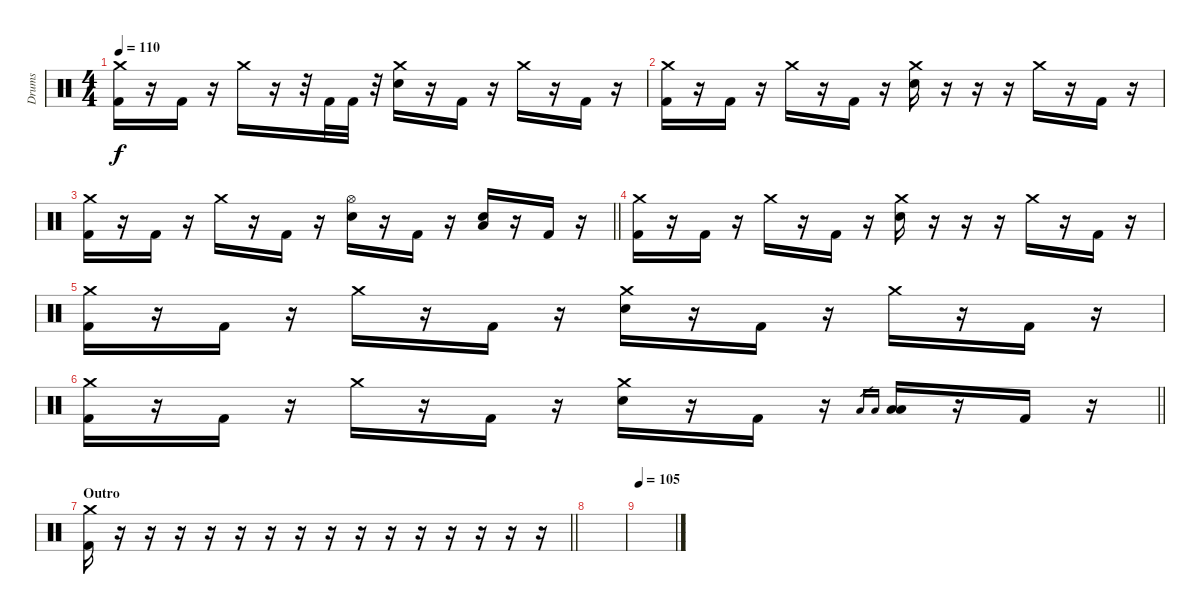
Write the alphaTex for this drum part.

\track ("Drums" "Drums") {instrument percussion}
\staff {score}
\articulation defaults
\ts (4 4)
\tempo 110
\clef neutral
\ks c
("Crash medium (hit)" "Kick (hit) 2").16{dy f} r.16 "Kick (hit) 2".16 r.16 "Crash medium (hit)".16 r.16 r.32 "Kick (hit) 2".32 "Kick (hit) 2".32 r.32 ("Crash medium (hit)" "Electric Snare (hit)").16 r.16 "Kick (hit) 2".16 r.16 "Crash medium (hit)".16 r.16 "Kick (hit) 2".16 r.16 |
("Crash medium (hit)" "Kick (hit) 2").16 r.16 "Kick (hit) 2".16 r.16 "Crash medium (hit)".16 r.16 "Kick (hit) 2".16 r.16 ("Crash medium (hit)" "Electric Snare (hit)").16 r.16 r.16 r.16 "Crash medium (hit)".16 r.16 "Kick (hit) 2".16 r.16 |
\barLineRight lightlight
("Crash medium (hit)" "Kick (hit) 2").16 r.16 "Kick (hit) 2".16 r.16 "Crash medium (hit)".16 r.16 "Kick (hit) 2".16 r.16 ("Hi-Hat (open)" "Electric Snare (hit)").16 r.16 "Kick (hit) 2".16 r.16 ("Low Floor Tom (hit)" "Electric Snare (hit)").16 r.16 "Kick (hit) 2".16 r.16 |
("Crash medium (hit)" "Kick (hit) 2").16 r.16 "Kick (hit) 2".16 r.16 "Crash medium (hit)".16 r.16 "Kick (hit) 2".16 r.16 ("Crash medium (hit)" "Electric Snare (hit)").16 r.16 r.16 r.16 "Crash medium (hit)".16 r.16 "Kick (hit) 2".16 r.16 |
("Crash medium (hit)" "Kick (hit) 2").16 r.16 "Kick (hit) 2".16 r.16 "Crash medium (hit)".16 r.16 "Kick (hit) 2".16 r.16 ("Crash medium (hit)" "Electric Snare (hit)").16 r.16 "Kick (hit) 2".16 r.16 "Crash medium (hit)".16 r.16 "Kick (hit) 2".16 r.16 |
\barLineRight lightlight
("Crash medium (hit)" "Kick (hit) 2").16 r.16 "Kick (hit) 2".16 r.16 "Crash medium (hit)".16 r.16 "Kick (hit) 2".16 r.16 ("Crash medium (hit)" "Electric Snare (hit)").16 r.16 "Kick (hit) 2".16 r.16 "Low Tom (hit)".16{gr} "Low Tom (hit)".16{gr} ("Low Tom (hit)" "Low Tom (hit)").16 r.16 "Kick (hit) 2".16 r.16 |
\section ("" "Outro")
\barLineRight lightlight
("Crash medium (hit)" "Kick (hit) 2").16 r.16 r.16 r.16 r.16 r.16 r.16 r.16 r.16 r.16 r.16 r.16 r.16 r.16 r.16 r.16 |
|
\tempo 105
